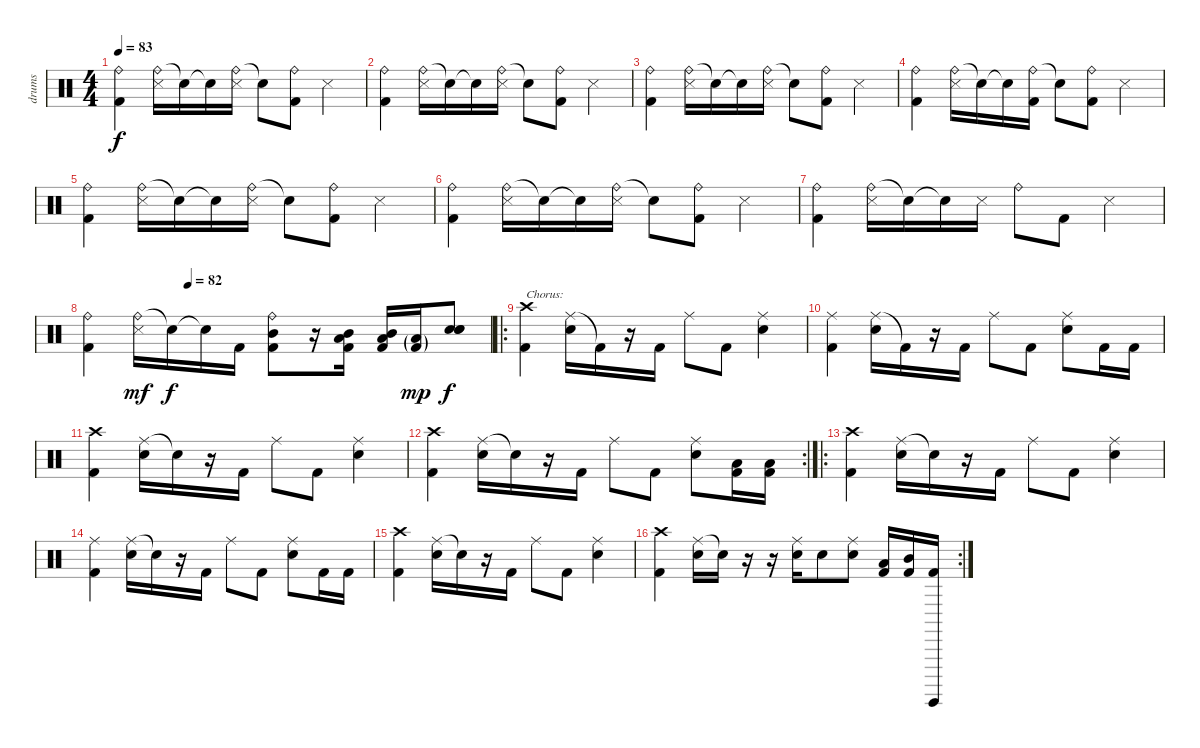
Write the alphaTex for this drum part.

\track ("drums" "drums") {instrument percussion}
\staff {score}
\articulation defaults
\ts (4 4)
\tempo 83
\clef neutral
\ks c
("Ride (bell)" "Kick (hit) 2").4{dy f} ("Ride (bell)" "Snare (side stick) 3").16 "Snare (hit)"{t}.16 "Snare (hit)"{t}.16 ("Ride (bell)" "Snare (side stick) 3").16 "Snare (hit)"{t}.8 ("Ride (bell)" "Kick (hit) 2").8 "Snare (side stick) 3".4 |
("Ride (bell)" "Kick (hit) 2").4 ("Ride (bell)" "Snare (side stick) 3").16 "Snare (hit)"{t}.16 "Snare (hit)"{t}.16 ("Ride (bell)" "Snare (side stick) 3").16 "Snare (hit)"{t}.8 ("Ride (bell)" "Kick (hit) 2").8 "Snare (side stick) 3".4 |
("Ride (bell)" "Kick (hit) 2").4 ("Ride (bell)" "Snare (side stick) 3").16 "Snare (hit)"{t}.16 "Snare (hit)"{t}.16 ("Ride (bell)" "Snare (side stick) 3").16 "Snare (hit)"{t}.8 ("Ride (bell)" "Kick (hit) 2").8 "Snare (side stick) 3".4 |
("Ride (bell)" "Kick (hit) 2").4 ("Ride (bell)" "Snare (side stick) 3").16 "Snare (hit)"{t}.16 "Snare (hit)"{t}.16 ("Ride (bell)" "Kick (hit) 2").16 "Snare (hit)"{t}.8 ("Ride (bell)" "Kick (hit) 2").8 "Snare (side stick) 3".4 |
("Ride (bell)" "Kick (hit) 2").4 ("Ride (bell)" "Snare (side stick) 3").16 "Snare (hit)"{t}.16 "Snare (hit)"{t}.16 ("Ride (bell)" "Snare (side stick) 3").16 "Snare (hit)"{t}.8 ("Ride (bell)" "Kick (hit) 2").8 "Snare (side stick) 3".4 |
("Ride (bell)" "Kick (hit) 2").4 ("Ride (bell)" "Snare (side stick) 3").16 "Snare (hit)"{t}.16 "Snare (hit)"{t}.16 ("Ride (bell)" "Snare (side stick) 3").16 "Snare (hit)"{t}.8 ("Ride (bell)" "Kick (hit) 2").8 "Snare (side stick) 3".4 |
("Ride (bell)" "Kick (hit) 2").4 ("Ride (bell)" "Snare (side stick) 3").16 "Snare (hit)"{t}.16 "Snare (hit)"{t}.16 "Snare (side stick) 3".16 "Ride (bell)".8 "Kick (hit) 2".8 "Snare (side stick) 3".4 |
\tempo (82 0.25)
("Ride (bell)" "Kick (hit) 2").4 ("Ride (bell)" "Snare (side stick) 3").16{dy mf volume 16} "Snare (hit)"{t}.16{dy f} "Snare (hit)"{t}.16 "Kick (hit) 2".16 ("Ride (bell)" "Mid Tom (hit)" "Kick (hit) 2").8 r.16 ("Mid Tom (hit)" "Low Tom (hit)" "Kick (hit) 2").16 ("Mid Tom (hit)" "Low Tom (hit)" "Kick (hit) 2").16 ("Low Tom (hit)"{g} "Kick (hit) 2"{g}).16{dy mp} ("Electric Snare (hit)" "Electric Snare (hit)" "Electric Snare (hit)").8{dy f} |
\ro
("Crash high (hit)" "Kick (hit) 2").4{txt "Chorus:"} ("Ride (middle)" "Electric Snare (hit)").16 "Kick (hit) 2"{t}.16 r.16 "Kick (hit) 2".16 "Ride (middle)".8 "Kick (hit) 2".8 ("Ride (middle)" "Electric Snare (hit)").4 |
("Ride (middle)" "Kick (hit) 2").4 ("Ride (middle)" "Electric Snare (hit)").16 "Kick (hit) 2"{t}.16 r.16 "Kick (hit) 2".16 "Ride (middle)".8 "Kick (hit) 2".8 ("Ride (middle)" "Electric Snare (hit)").8 "Kick (hit) 2".16 "Kick (hit) 2".16 |
("Crash high (hit)" "Kick (hit) 2").4 ("Ride (middle)" "Electric Snare (hit)").16 "Snare (hit)"{t}.16 r.16 "Kick (hit) 2".16 "Ride (middle)".8 "Kick (hit) 2".8 ("Ride (middle)" "Electric Snare (hit)").4 |
\rc 2
("Crash high (hit)" "Kick (hit) 2").4 ("Ride (middle)" "Electric Snare (hit)").16 "Snare (hit)"{t}.16 r.16 "Kick (hit) 2".16 "Ride (middle)".8 "Kick (hit) 2".8 ("Ride (middle)" "Electric Snare (hit)").8 ("Low Tom (hit)" "Kick (hit) 2").16 ("Low Tom (hit)" "Kick (hit) 2").16 |
\ro
("Crash high (hit)" "Kick (hit) 2").4 ("Ride (middle)" "Electric Snare (hit)").16 "Snare (hit)"{t}.16 r.16 "Kick (hit) 2".16 "Ride (middle)".8 "Kick (hit) 2".8 ("Ride (middle)" "Electric Snare (hit)").4 |
("Ride (middle)" "Kick (hit) 2").4 ("Ride (middle)" "Electric Snare (hit)").16 "Snare (hit)"{t}.16 r.16 "Kick (hit) 2".16 "Ride (middle)".8 "Kick (hit) 2".8 ("Ride (middle)" "Electric Snare (hit)").8 "Kick (hit) 2".16 "Kick (hit) 2".16 |
("Crash high (hit)" "Kick (hit) 2").4 ("Ride (middle)" "Electric Snare (hit)").16 "Snare (hit)"{t}.16 r.16 "Kick (hit) 2".16 "Ride (middle)".8 "Kick (hit) 2".8 ("Ride (middle)" "Electric Snare (hit)").4 |
\rc 2
("Crash high (hit)" "Kick (hit) 2").4 ("Ride (middle)" "Electric Snare (hit)").16 "Snare (hit)"{t}.16 r.16 r.16 ("Ride (middle)" "Electric Snare (hit)").16 "Electric Snare (hit)".8 ("Ride (middle)" "Electric Snare (hit)").8 ("Low Tom (hit)" "Kick (hit) 2").16 ("Mid Tom (hit)" "Kick (hit) 2").16 ("Surdo (hit)" "Kick (hit) 2").16
